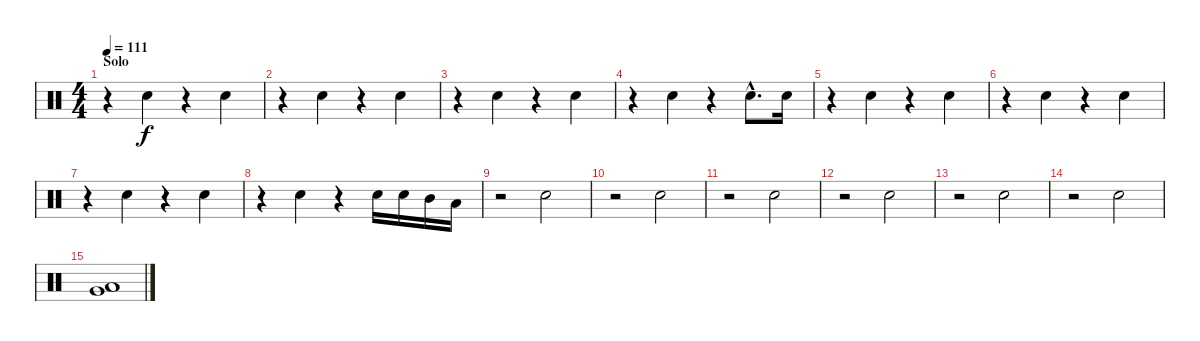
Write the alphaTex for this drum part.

\track "" {instrument percussion}
\staff {score}
\articulation defaults
\ts (4 4)
\section ("" "Solo")
\tempo 111
\clef neutral
\ks c
r.4{dy f} "Electric Snare (hit)".4 r.4 "Electric Snare (hit)".4 |
r.4 "Electric Snare (hit)".4 r.4 "Electric Snare (hit)".4 |
r.4 "Electric Snare (hit)".4 r.4 "Electric Snare (hit)".4 |
r.4 "Electric Snare (hit)".4 r.4 "Electric Snare (hit)"{hac}.8{d} "Electric Snare (hit)".16 |
r.4 "Electric Snare (hit)".4 r.4 "Electric Snare (hit)".4 |
r.4 "Electric Snare (hit)".4 r.4 "Electric Snare (hit)".4 |
r.4 "Electric Snare (hit)".4 r.4 "Electric Snare (hit)".4 |
r.4 "Electric Snare (hit)".4 r.4 "Electric Snare (hit)".16 "Electric Snare (hit)".16 "Mid Tom (hit)".16 "Low Tom (hit)".16 |
r.2 "Electric Snare (hit)".2 |
r.2 "Electric Snare (hit)".2 |
r.2 "Electric Snare (hit)".2 |
r.2 "Electric Snare (hit)".2 |
r.2 "Electric Snare (hit)".2 |
r.2 "Electric Snare (hit)".2 |
("Low Tom (hit)" "Very Low Tom (hit)").1
